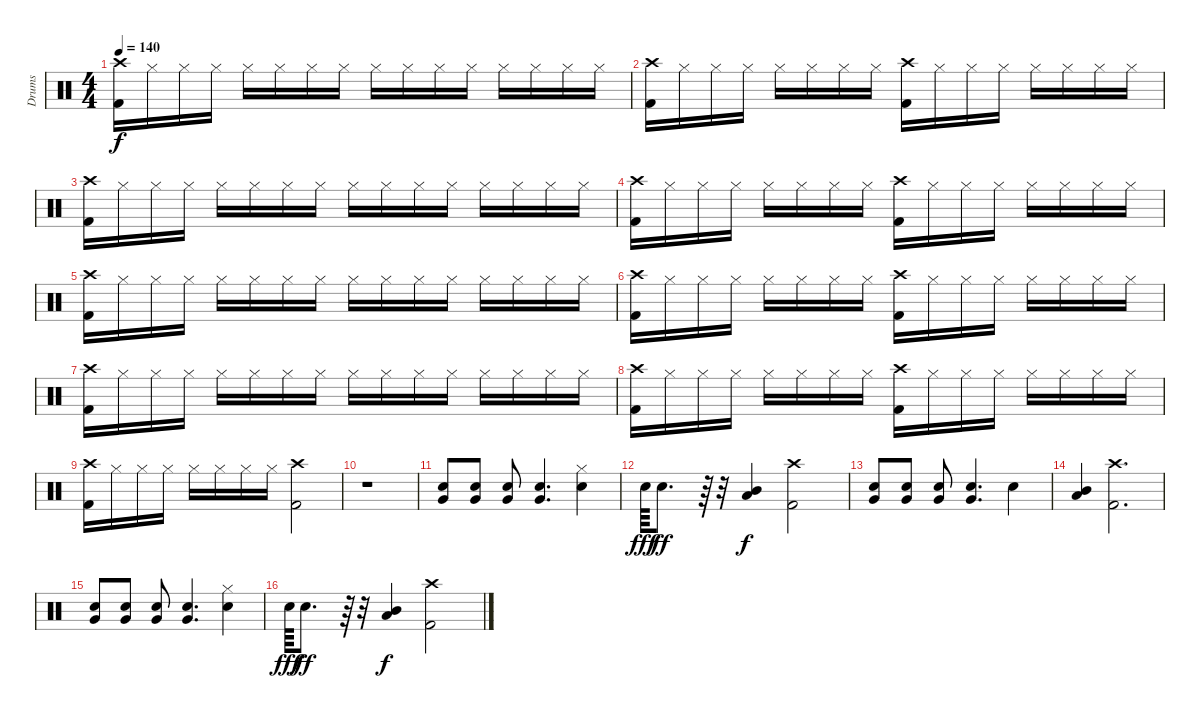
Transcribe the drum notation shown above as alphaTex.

\track ("Drums" "Drums") {instrument percussion}
\staff {score}
\articulation defaults
\ts (4 4)
\tempo 140
\clef neutral
\ks c
("Crash high (hit)" "Kick (hit) 2").16{dy f} "Hi-Hat (closed)".16 "Hi-Hat (closed)".16 "Hi-Hat (closed)".16 "Hi-Hat (closed)".16 "Hi-Hat (closed)".16 "Hi-Hat (closed)".16 "Hi-Hat (closed)".16 "Hi-Hat (closed)".16 "Hi-Hat (closed)".16 "Hi-Hat (closed)".16 "Hi-Hat (closed)".16 "Hi-Hat (closed)".16 "Hi-Hat (closed)".16 "Hi-Hat (closed)".16 "Hi-Hat (closed)".16 |
("Crash high (hit)" "Kick (hit) 2").16 "Hi-Hat (closed)".16 "Hi-Hat (closed)".16 "Hi-Hat (closed)".16 "Hi-Hat (closed)".16 "Hi-Hat (closed)".16 "Hi-Hat (closed)".16 "Hi-Hat (closed)".16 ("Crash high (hit)" "Kick (hit) 2").16 "Hi-Hat (closed)".16 "Hi-Hat (closed)".16 "Hi-Hat (closed)".16 "Hi-Hat (closed)".16 "Hi-Hat (closed)".16 "Hi-Hat (closed)".16 "Hi-Hat (closed)".16 |
("Crash high (hit)" "Kick (hit) 2").16 "Hi-Hat (closed)".16 "Hi-Hat (closed)".16 "Hi-Hat (closed)".16 "Hi-Hat (closed)".16 "Hi-Hat (closed)".16 "Hi-Hat (closed)".16 "Hi-Hat (closed)".16 "Hi-Hat (closed)".16 "Hi-Hat (closed)".16 "Hi-Hat (closed)".16 "Hi-Hat (closed)".16 "Hi-Hat (closed)".16 "Hi-Hat (closed)".16 "Hi-Hat (closed)".16 "Hi-Hat (closed)".16 |
("Crash high (hit)" "Kick (hit) 2").16 "Hi-Hat (closed)".16 "Hi-Hat (closed)".16 "Hi-Hat (closed)".16 "Hi-Hat (closed)".16 "Hi-Hat (closed)".16 "Hi-Hat (closed)".16 "Hi-Hat (closed)".16 ("Crash high (hit)" "Kick (hit) 2").16 "Hi-Hat (closed)".16 "Hi-Hat (closed)".16 "Hi-Hat (closed)".16 "Hi-Hat (closed)".16 "Hi-Hat (closed)".16 "Hi-Hat (closed)".16 "Hi-Hat (closed)".16 |
("Crash high (hit)" "Kick (hit) 2").16 "Hi-Hat (closed)".16 "Hi-Hat (closed)".16 "Hi-Hat (closed)".16 "Hi-Hat (closed)".16 "Hi-Hat (closed)".16 "Hi-Hat (closed)".16 "Hi-Hat (closed)".16 "Hi-Hat (closed)".16 "Hi-Hat (closed)".16 "Hi-Hat (closed)".16 "Hi-Hat (closed)".16 "Hi-Hat (closed)".16 "Hi-Hat (closed)".16 "Hi-Hat (closed)".16 "Hi-Hat (closed)".16 |
("Crash high (hit)" "Kick (hit) 2").16 "Hi-Hat (closed)".16 "Hi-Hat (closed)".16 "Hi-Hat (closed)".16 "Hi-Hat (closed)".16 "Hi-Hat (closed)".16 "Hi-Hat (closed)".16 "Hi-Hat (closed)".16 ("Crash high (hit)" "Kick (hit) 2").16 "Hi-Hat (closed)".16 "Hi-Hat (closed)".16 "Hi-Hat (closed)".16 "Hi-Hat (closed)".16 "Hi-Hat (closed)".16 "Hi-Hat (closed)".16 "Hi-Hat (closed)".16 |
("Crash high (hit)" "Kick (hit) 2").16 "Hi-Hat (closed)".16 "Hi-Hat (closed)".16 "Hi-Hat (closed)".16 "Hi-Hat (closed)".16 "Hi-Hat (closed)".16 "Hi-Hat (closed)".16 "Hi-Hat (closed)".16 "Hi-Hat (closed)".16 "Hi-Hat (closed)".16 "Hi-Hat (closed)".16 "Hi-Hat (closed)".16 "Hi-Hat (closed)".16 "Hi-Hat (closed)".16 "Hi-Hat (closed)".16 "Hi-Hat (closed)".16 |
("Crash high (hit)" "Kick (hit) 2").16 "Hi-Hat (closed)".16 "Hi-Hat (closed)".16 "Hi-Hat (closed)".16 "Hi-Hat (closed)".16 "Hi-Hat (closed)".16 "Hi-Hat (closed)".16 "Hi-Hat (closed)".16 ("Crash high (hit)" "Kick (hit) 2").16 "Hi-Hat (closed)".16 "Hi-Hat (closed)".16 "Hi-Hat (closed)".16 "Hi-Hat (closed)".16 "Hi-Hat (closed)".16 "Hi-Hat (closed)".16 "Hi-Hat (closed)".16 |
("Crash high (hit)" "Kick (hit) 2").16 "Hi-Hat (closed)".16 "Hi-Hat (closed)".16 "Hi-Hat (closed)".16 "Hi-Hat (closed)".16 "Hi-Hat (closed)".16 "Hi-Hat (closed)".16 "Hi-Hat (closed)".16 ("Crash high (hit)" "Kick (hit) 2").2 |
r.1 |
("Very Low Tom (hit)" "Snare (hit) 2").8 ("Very Low Tom (hit)" "Snare (hit) 2").8 ("Very Low Tom (hit)" "Snare (hit) 2").8 ("Very Low Tom (hit)" "Snare (hit) 2").4{d} ("Hi-Hat (closed)" "Snare (hit) 2").4 |
"Snare (hit) 2".64{dy fff} "Snare (hit) 2".8{d dy ff} r.64 r.32 ("Mid Tom (hit)" "Low Tom (hit)").4{dy f} ("Crash high (hit)" "Kick (hit) 2").2 |
("Very Low Tom (hit)" "Snare (hit) 2").8 ("Very Low Tom (hit)" "Snare (hit) 2").8 ("Very Low Tom (hit)" "Snare (hit) 2").8 ("Very Low Tom (hit)" "Snare (hit) 2").4{d} "Snare (hit) 2".4 |
("Mid Tom (hit)" "Low Tom (hit)").4 ("Crash high (hit)" "Kick (hit) 2").2{d} |
("Very Low Tom (hit)" "Snare (hit) 2").8 ("Very Low Tom (hit)" "Snare (hit) 2").8 ("Very Low Tom (hit)" "Snare (hit) 2").8 ("Very Low Tom (hit)" "Snare (hit) 2").4{d} ("Hi-Hat (closed)" "Snare (hit) 2").4 |
"Snare (hit) 2".64{dy fff} "Snare (hit) 2".8{d dy ff} r.64 r.32 ("Mid Tom (hit)" "Low Tom (hit)").4{dy f} ("Crash high (hit)" "Kick (hit) 2").2
